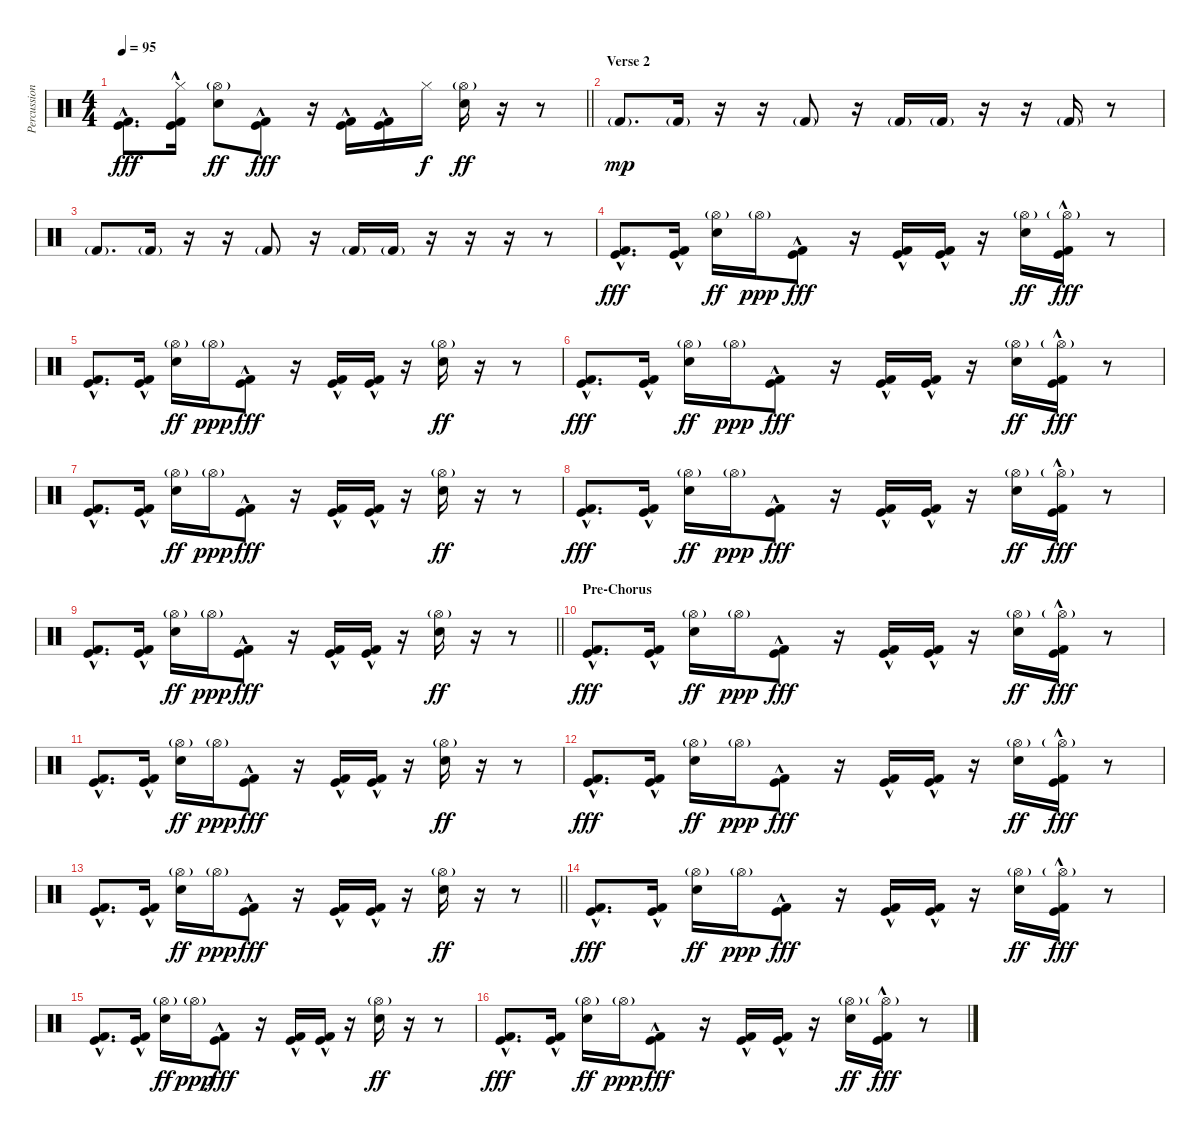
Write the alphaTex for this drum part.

\track ("Percussion" "Percussion") {instrument percussion}
\staff {score}
\articulation defaults
\ts (4 4)
\tempo 95
\clef neutral
\barLineRight lightlight
\ks c
("Kick (hit) 2"{hac} "Kick (hit)"{hac}).8{d dy fff} ("Hi-Hat (closed)" "Kick (hit) 2"{hac} "Kick (hit)"{hac}).16 ("Hi-Hat (open)"{g} "Electric Snare (hit)").8{dy ff} ("Kick (hit) 2"{hac} "Kick (hit)"{hac}).8{dy fff} r.16 ("Kick (hit) 2"{hac} "Kick (hit)"{hac}).16 ("Kick (hit) 2"{hac} "Kick (hit)"{hac}).16 "Hi-Hat (closed)".16{dy f} ("Hi-Hat (open)"{g} "Electric Snare (hit)").16{dy ff} r.16 r.8 |
\section ("" "Verse 2")
"Kick (hit) 2"{g}.8{d dy mp} "Kick (hit) 2"{g}.16 r.16 r.16 "Kick (hit) 2"{g}.8 r.16 "Kick (hit) 2"{g}.16 "Kick (hit) 2"{g}.16 r.16 r.16 "Kick (hit) 2"{g}.16 r.8 |
"Kick (hit) 2"{g}.8{d} "Kick (hit) 2"{g}.16 r.16 r.16 "Kick (hit) 2"{g}.8 r.16 "Kick (hit) 2"{g}.16 "Kick (hit) 2"{g}.16 r.16 r.16 r.16 r.8 |
("Kick (hit) 2"{hac} "Kick (hit)"{hac}).8{d dy fff} ("Kick (hit) 2"{hac} "Kick (hit)"{hac}).16 ("Hi-Hat (open)"{g} "Electric Snare (hit)").16{dy ff} "Hi-Hat (open)"{g}.16{dy ppp} ("Kick (hit) 2"{hac} "Kick (hit)"{hac}).8{dy fff} r.16 ("Kick (hit) 2"{hac} "Kick (hit)"{hac}).16 ("Kick (hit) 2"{hac} "Kick (hit)"{hac}).16 r.16 ("Hi-Hat (open)"{g} "Electric Snare (hit)").16{dy ff} ("Hi-Hat (open)"{g} "Kick (hit) 2"{hac} "Kick (hit)"{hac}).16{dy fff} r.8 |
("Kick (hit) 2"{hac} "Kick (hit)"{hac}).8{d} ("Kick (hit) 2"{hac} "Kick (hit)"{hac}).16 ("Hi-Hat (open)"{g} "Electric Snare (hit)").16{dy ff} "Hi-Hat (open)"{g}.16{dy ppp} ("Kick (hit) 2"{hac} "Kick (hit)"{hac}).8{dy fff} r.16 ("Kick (hit) 2"{hac} "Kick (hit)"{hac}).16 ("Kick (hit) 2"{hac} "Kick (hit)"{hac}).16 r.16 ("Hi-Hat (open)"{g} "Electric Snare (hit)").16{dy ff} r.16 r.8 |
("Kick (hit) 2"{hac} "Kick (hit)"{hac}).8{d dy fff} ("Kick (hit) 2"{hac} "Kick (hit)"{hac}).16 ("Hi-Hat (open)"{g} "Electric Snare (hit)").16{dy ff} "Hi-Hat (open)"{g}.16{dy ppp} ("Kick (hit) 2"{hac} "Kick (hit)"{hac}).8{dy fff} r.16 ("Kick (hit) 2"{hac} "Kick (hit)"{hac}).16 ("Kick (hit) 2"{hac} "Kick (hit)"{hac}).16 r.16 ("Hi-Hat (open)"{g} "Electric Snare (hit)").16{dy ff} ("Hi-Hat (open)"{g} "Kick (hit) 2"{hac} "Kick (hit)"{hac}).16{dy fff} r.8 |
("Kick (hit) 2"{hac} "Kick (hit)"{hac}).8{d} ("Kick (hit) 2"{hac} "Kick (hit)"{hac}).16 ("Hi-Hat (open)"{g} "Electric Snare (hit)").16{dy ff} "Hi-Hat (open)"{g}.16{dy ppp} ("Kick (hit) 2"{hac} "Kick (hit)"{hac}).8{dy fff} r.16 ("Kick (hit) 2"{hac} "Kick (hit)"{hac}).16 ("Kick (hit) 2"{hac} "Kick (hit)"{hac}).16 r.16 ("Hi-Hat (open)"{g} "Electric Snare (hit)").16{dy ff} r.16 r.8 |
("Kick (hit) 2"{hac} "Kick (hit)"{hac}).8{d dy fff} ("Kick (hit) 2"{hac} "Kick (hit)"{hac}).16 ("Hi-Hat (open)"{g} "Electric Snare (hit)").16{dy ff} "Hi-Hat (open)"{g}.16{dy ppp} ("Kick (hit) 2"{hac} "Kick (hit)"{hac}).8{dy fff} r.16 ("Kick (hit) 2"{hac} "Kick (hit)"{hac}).16 ("Kick (hit) 2"{hac} "Kick (hit)"{hac}).16 r.16 ("Hi-Hat (open)"{g} "Electric Snare (hit)").16{dy ff} ("Hi-Hat (open)"{g} "Kick (hit) 2"{hac} "Kick (hit)"{hac}).16{dy fff} r.8 |
\barLineRight lightlight
("Kick (hit) 2"{hac} "Kick (hit)"{hac}).8{d} ("Kick (hit) 2"{hac} "Kick (hit)"{hac}).16 ("Hi-Hat (open)"{g} "Electric Snare (hit)").16{dy ff} "Hi-Hat (open)"{g}.16{dy ppp} ("Kick (hit) 2"{hac} "Kick (hit)"{hac}).8{dy fff} r.16 ("Kick (hit) 2"{hac} "Kick (hit)"{hac}).16 ("Kick (hit) 2"{hac} "Kick (hit)"{hac}).16 r.16 ("Hi-Hat (open)"{g} "Electric Snare (hit)").16{dy ff} r.16 r.8 |
\section ("" "Pre-Chorus")
("Kick (hit) 2"{hac} "Kick (hit)"{hac}).8{d dy fff} ("Kick (hit) 2"{hac} "Kick (hit)"{hac}).16 ("Hi-Hat (open)"{g} "Electric Snare (hit)").16{dy ff} "Hi-Hat (open)"{g}.16{dy ppp} ("Kick (hit) 2"{hac} "Kick (hit)"{hac}).8{dy fff} r.16 ("Kick (hit) 2"{hac} "Kick (hit)"{hac}).16 ("Kick (hit) 2"{hac} "Kick (hit)"{hac}).16 r.16 ("Hi-Hat (open)"{g} "Electric Snare (hit)").16{dy ff} ("Hi-Hat (open)"{g} "Kick (hit) 2"{hac} "Kick (hit)"{hac}).16{dy fff} r.8 |
("Kick (hit) 2"{hac} "Kick (hit)"{hac}).8{d} ("Kick (hit) 2"{hac} "Kick (hit)"{hac}).16 ("Hi-Hat (open)"{g} "Electric Snare (hit)").16{dy ff} "Hi-Hat (open)"{g}.16{dy ppp} ("Kick (hit) 2"{hac} "Kick (hit)"{hac}).8{dy fff} r.16 ("Kick (hit) 2"{hac} "Kick (hit)"{hac}).16 ("Kick (hit) 2"{hac} "Kick (hit)"{hac}).16 r.16 ("Hi-Hat (open)"{g} "Electric Snare (hit)").16{dy ff} r.16 r.8 |
("Kick (hit) 2"{hac} "Kick (hit)"{hac}).8{d dy fff} ("Kick (hit) 2"{hac} "Kick (hit)"{hac}).16 ("Hi-Hat (open)"{g} "Electric Snare (hit)").16{dy ff} "Hi-Hat (open)"{g}.16{dy ppp} ("Kick (hit) 2"{hac} "Kick (hit)"{hac}).8{dy fff} r.16 ("Kick (hit) 2"{hac} "Kick (hit)"{hac}).16 ("Kick (hit) 2"{hac} "Kick (hit)"{hac}).16 r.16 ("Hi-Hat (open)"{g} "Electric Snare (hit)").16{dy ff} ("Hi-Hat (open)"{g} "Kick (hit) 2"{hac} "Kick (hit)"{hac}).16{dy fff} r.8 |
\barLineRight lightlight
("Kick (hit) 2"{hac} "Kick (hit)"{hac}).8{d} ("Kick (hit) 2"{hac} "Kick (hit)"{hac}).16 ("Hi-Hat (open)"{g} "Electric Snare (hit)").16{dy ff} "Hi-Hat (open)"{g}.16{dy ppp} ("Kick (hit) 2"{hac} "Kick (hit)"{hac}).8{dy fff} r.16 ("Kick (hit) 2"{hac} "Kick (hit)"{hac}).16 ("Kick (hit) 2"{hac} "Kick (hit)"{hac}).16 r.16 ("Hi-Hat (open)"{g} "Electric Snare (hit)").16{dy ff} r.16 r.8 |
("Kick (hit) 2"{hac} "Kick (hit)"{hac}).8{d dy fff} ("Kick (hit) 2"{hac} "Kick (hit)"{hac}).16 ("Hi-Hat (open)"{g} "Electric Snare (hit)").16{dy ff} "Hi-Hat (open)"{g}.16{dy ppp} ("Kick (hit) 2"{hac} "Kick (hit)"{hac}).8{dy fff} r.16 ("Kick (hit) 2"{hac} "Kick (hit)"{hac}).16 ("Kick (hit) 2"{hac} "Kick (hit)"{hac}).16 r.16 ("Hi-Hat (open)"{g} "Electric Snare (hit)").16{dy ff} ("Hi-Hat (open)"{g} "Kick (hit) 2"{hac} "Kick (hit)"{hac}).16{dy fff} r.8 |
("Kick (hit) 2"{hac} "Kick (hit)"{hac}).8{d} ("Kick (hit) 2"{hac} "Kick (hit)"{hac}).16 ("Hi-Hat (open)"{g} "Electric Snare (hit)").16{dy ff} "Hi-Hat (open)"{g}.16{dy ppp} ("Kick (hit) 2"{hac} "Kick (hit)"{hac}).8{dy fff} r.16 ("Kick (hit) 2"{hac} "Kick (hit)"{hac}).16 ("Kick (hit) 2"{hac} "Kick (hit)"{hac}).16 r.16 ("Hi-Hat (open)"{g} "Electric Snare (hit)").16{dy ff} r.16 r.8 |
("Kick (hit) 2"{hac} "Kick (hit)"{hac}).8{d dy fff} ("Kick (hit) 2"{hac} "Kick (hit)"{hac}).16 ("Hi-Hat (open)"{g} "Electric Snare (hit)").16{dy ff} "Hi-Hat (open)"{g}.16{dy ppp} ("Kick (hit) 2"{hac} "Kick (hit)"{hac}).8{dy fff} r.16 ("Kick (hit) 2"{hac} "Kick (hit)"{hac}).16 ("Kick (hit) 2"{hac} "Kick (hit)"{hac}).16 r.16 ("Hi-Hat (open)"{g} "Electric Snare (hit)").16{dy ff} ("Hi-Hat (open)"{g} "Kick (hit) 2"{hac} "Kick (hit)"{hac}).16{dy fff} r.8
